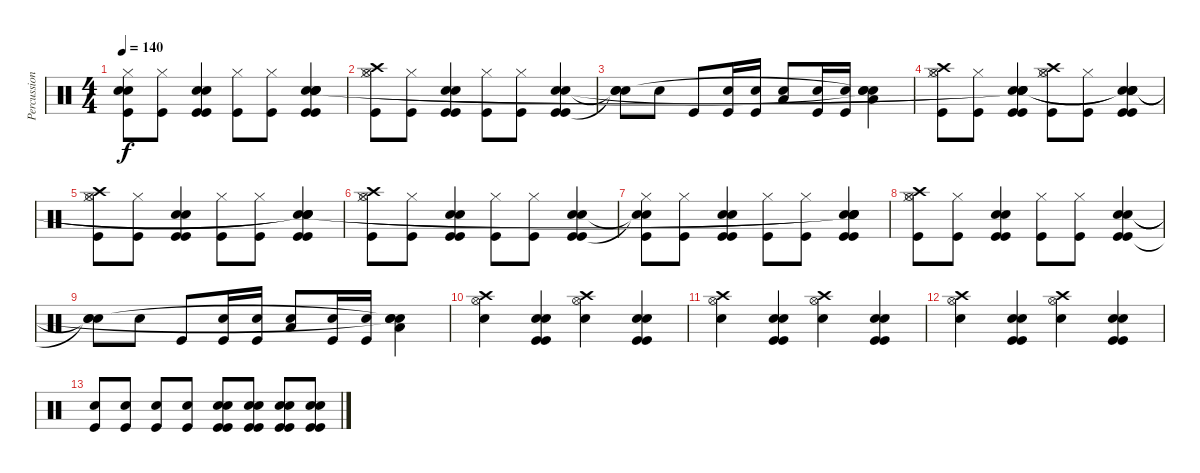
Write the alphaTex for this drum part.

\track ("Percussions" "Percussion") {instrument percussion}
\staff {score}
\articulation defaults
\ts (4 4)
\tempo 140
\clef neutral
\ks c
("Kick (hit)" "Hi-Hat (closed)" "Snare (hit)"{t} "Snare (hit)"{t}).8{dy f} ("Kick (hit)" "Hi-Hat (closed)").8 ("Kick (hit)" "Electric Snare (hit)" "Kick (hit)" "Electric Snare (hit)").4 ("Kick (hit)" "Hi-Hat (closed)").8 ("Kick (hit)" "Hi-Hat (closed)").8 ("Kick (hit)" "Electric Snare (hit)" "Kick (hit)" "Electric Snare (hit)" "Snare (hit)"{t} "Snare (hit)"{t}).4 |
("Kick (hit)" "Hi-Hat (closed)" "Crash high (hit)" "Hi-Hat (open)").8 ("Kick (hit)" "Hi-Hat (closed)").8 ("Kick (hit)" "Electric Snare (hit)" "Kick (hit)" "Electric Snare (hit)").4 ("Kick (hit)" "Hi-Hat (closed)").8 ("Kick (hit)" "Hi-Hat (closed)").8 ("Kick (hit)" "Electric Snare (hit)" "Kick (hit)" "Electric Snare (hit)").4 |
("Electric Snare (hit)" "Snare (hit)"{t} "Snare (hit)"{t}).8 "Electric Snare (hit)".8 "Kick (hit)".8 ("Electric Snare (hit)" "Kick (hit)").16 ("Electric Snare (hit)" "Kick (hit)").16 ("Electric Snare (hit)" "Low Tom (hit)").8 ("Electric Snare (hit)" "Kick (hit)").16 ("Electric Snare (hit)" "Kick (hit)").16 ("Electric Snare (hit)" "Low Tom (hit)" "Snare (hit)"{t} "Snare (hit)"{t}).4 |
("Kick (hit)" "Hi-Hat (closed)" "Crash high (hit)" "Hi-Hat (open)").8 ("Kick (hit)" "Hi-Hat (closed)").8 ("Kick (hit)" "Electric Snare (hit)" "Kick (hit)" "Electric Snare (hit)" "Snare (hit)"{t} "Snare (hit)"{t}).4 ("Kick (hit)" "Hi-Hat (closed)" "Crash high (hit)" "Hi-Hat (open)").8 ("Kick (hit)" "Hi-Hat (closed)").8 ("Kick (hit)" "Electric Snare (hit)" "Kick (hit)" "Electric Snare (hit)" "Snare (hit)"{t} "Snare (hit)"{t}).4 |
("Kick (hit)" "Hi-Hat (closed)" "Crash high (hit)" "Hi-Hat (open)").8 ("Kick (hit)" "Hi-Hat (closed)").8 ("Kick (hit)" "Electric Snare (hit)" "Kick (hit)" "Electric Snare (hit)").4 ("Kick (hit)" "Hi-Hat (closed)").8 ("Kick (hit)" "Hi-Hat (closed)").8 ("Kick (hit)" "Electric Snare (hit)" "Kick (hit)" "Electric Snare (hit)" "Snare (hit)"{t} "Snare (hit)"{t}).4 |
("Kick (hit)" "Hi-Hat (closed)" "Crash high (hit)" "Hi-Hat (open)").8 ("Kick (hit)" "Hi-Hat (closed)").8 ("Kick (hit)" "Electric Snare (hit)" "Kick (hit)" "Electric Snare (hit)").4 ("Kick (hit)" "Hi-Hat (closed)").8 ("Kick (hit)" "Hi-Hat (closed)").8 ("Kick (hit)" "Electric Snare (hit)" "Kick (hit)" "Electric Snare (hit)").4 |
("Kick (hit)" "Hi-Hat (closed)" "Snare (hit)"{t} "Snare (hit)"{t}).8 ("Kick (hit)" "Hi-Hat (closed)").8 ("Kick (hit)" "Electric Snare (hit)" "Kick (hit)" "Electric Snare (hit)").4 ("Kick (hit)" "Hi-Hat (closed)").8 ("Kick (hit)" "Hi-Hat (closed)").8 ("Kick (hit)" "Electric Snare (hit)" "Kick (hit)" "Electric Snare (hit)" "Snare (hit)"{t} "Snare (hit)"{t}).4 |
("Kick (hit)" "Hi-Hat (closed)" "Crash high (hit)" "Hi-Hat (open)").8 ("Kick (hit)" "Hi-Hat (closed)").8 ("Kick (hit)" "Electric Snare (hit)" "Kick (hit)" "Electric Snare (hit)").4 ("Kick (hit)" "Hi-Hat (closed)").8 ("Kick (hit)" "Hi-Hat (closed)").8 ("Kick (hit)" "Electric Snare (hit)" "Kick (hit)" "Electric Snare (hit)").4 |
("Electric Snare (hit)" "Snare (hit)"{t} "Snare (hit)"{t}).8 "Electric Snare (hit)".8 "Kick (hit)".8 ("Electric Snare (hit)" "Kick (hit)").16 ("Electric Snare (hit)" "Kick (hit)").16 ("Electric Snare (hit)" "Low Tom (hit)").8 ("Electric Snare (hit)" "Kick (hit)").16 ("Electric Snare (hit)" "Kick (hit)").16 ("Electric Snare (hit)" "Low Tom (hit)" "Snare (hit)"{t} "Snare (hit)"{t}).4 |
("Crash high (hit)" "Snare (hit) 2" "Hi-Hat (open)").4 ("Kick (hit)" "Electric Snare (hit)" "Kick (hit)" "Electric Snare (hit)").4 ("Crash high (hit)" "Snare (hit) 2" "Hi-Hat (open)").4 ("Kick (hit)" "Electric Snare (hit)" "Kick (hit)" "Electric Snare (hit)").4 |
("Crash high (hit)" "Snare (hit) 2" "Hi-Hat (open)").4 ("Kick (hit)" "Electric Snare (hit)" "Kick (hit)" "Electric Snare (hit)").4 ("Crash high (hit)" "Snare (hit) 2" "Hi-Hat (open)").4 ("Kick (hit)" "Electric Snare (hit)" "Kick (hit)" "Electric Snare (hit)").4 |
("Crash high (hit)" "Snare (hit) 2" "Hi-Hat (open)").4 ("Kick (hit)" "Electric Snare (hit)" "Kick (hit)" "Electric Snare (hit)").4 ("Crash high (hit)" "Snare (hit) 2" "Hi-Hat (open)").4 ("Kick (hit)" "Electric Snare (hit)" "Kick (hit)" "Electric Snare (hit)").4 |
("Kick (hit)" "Electric Snare (hit)").8 ("Kick (hit)" "Electric Snare (hit)").8 ("Kick (hit)" "Electric Snare (hit)").8 ("Kick (hit)" "Electric Snare (hit)").8 ("Kick (hit)" "Electric Snare (hit)" "Kick (hit)" "Electric Snare (hit)").8 ("Kick (hit)" "Electric Snare (hit)" "Kick (hit)" "Electric Snare (hit)").8 ("Kick (hit)" "Electric Snare (hit)" "Kick (hit)" "Electric Snare (hit)").8 ("Kick (hit)" "Electric Snare (hit)" "Kick (hit)" "Electric Snare (hit)").8
